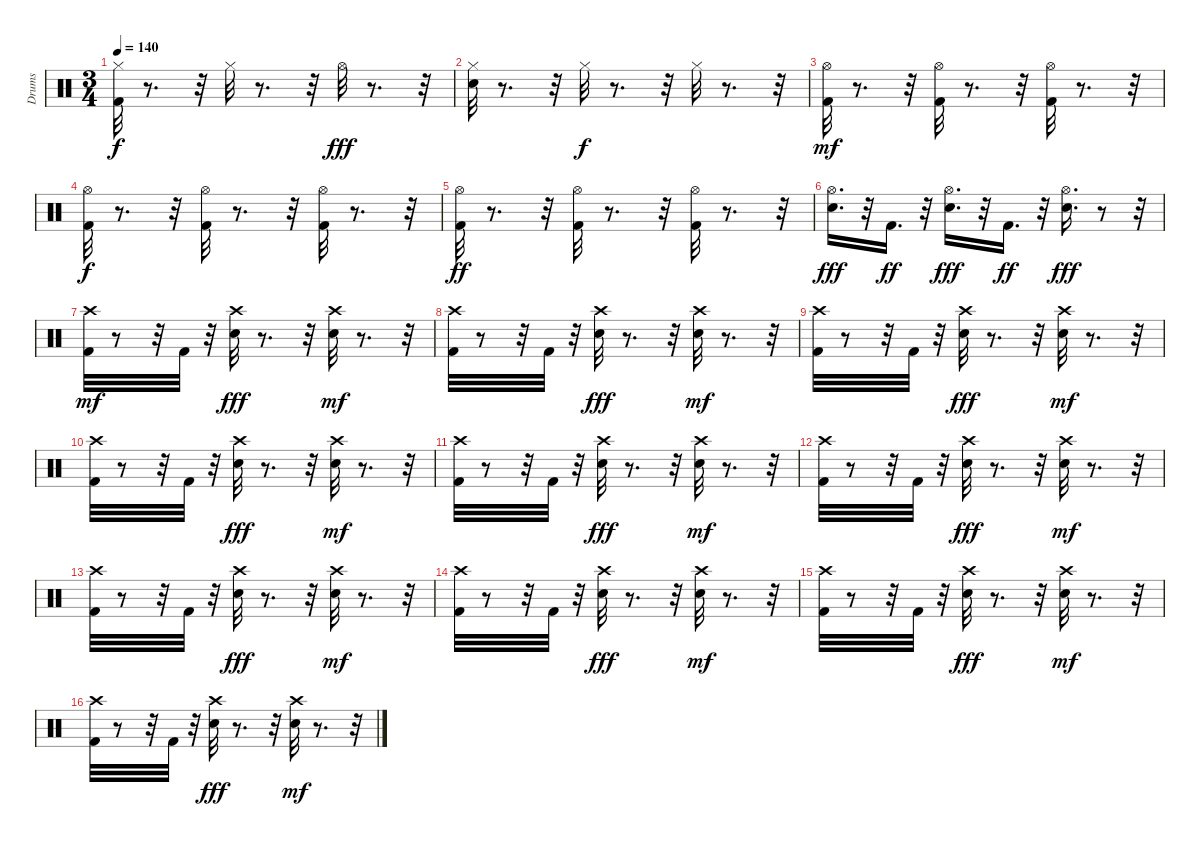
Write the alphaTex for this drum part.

\track ("Drums" "Drums") {instrument percussion}
\staff {score}
\articulation defaults
\ts (3 4)
\tempo 140
\clef neutral
\ks c
("Hi-Hat (closed)" "Kick (hit) 2").32{dy f} r.8{d} r.32 "Hi-Hat (closed)".32 r.8{d} r.32 "Hi-Hat (open)".32{dy fff} r.8{d} r.32 |
("Snare (hit) 2" "Hi-Hat (closed)").32 r.8{d} r.32 "Hi-Hat (closed)".32{dy f} r.8{d} r.32 "Hi-Hat (closed)".32 r.8{d} r.32 |
("Hi-Hat (open)" "Kick (hit) 2").32{dy mf} r.8{d} r.32 ("Kick (hit) 2" "Hi-Hat (open)").32 r.8{d} r.32 ("Kick (hit) 2" "Hi-Hat (open)").32 r.8{d} r.32 |
("Kick (hit) 2" "Hi-Hat (open)").32{dy f} r.8{d} r.32 ("Kick (hit) 2" "Hi-Hat (open)").32 r.8{d} r.32 ("Kick (hit) 2" "Hi-Hat (open)").32 r.8{d} r.32 |
("Kick (hit) 2" "Hi-Hat (open)").32{dy ff} r.8{d} r.32 ("Kick (hit) 2" "Hi-Hat (open)").32 r.8{d} r.32 ("Kick (hit) 2" "Hi-Hat (open)").32 r.8{d} r.32 |
("Hi-Hat (open)" "Snare (hit) 2").16{d dy fff} r.32 "Kick (hit) 2".16{d dy ff} r.32 ("Hi-Hat (open)" "Snare (hit) 2").16{d dy fff} r.32 "Kick (hit) 2".16{d dy ff} r.32 ("Hi-Hat (open)" "Snare (hit) 2").16{d dy fff} r.8 r.32 |
("Kick (hit) 2" "Crash high (hit)").32{dy mf} r.8 r.32 "Kick (hit) 2".32 r.32 ("Snare (hit) 2" "Crash high (hit)").32{dy fff} r.8{d} r.32 ("Snare (hit) 2" "Crash high (hit)").32{dy mf} r.8{d} r.32 |
("Kick (hit) 2" "Crash high (hit)").32 r.8 r.32 "Kick (hit) 2".32 r.32 ("Snare (hit) 2" "Crash high (hit)").32{dy fff} r.8{d} r.32 ("Snare (hit) 2" "Crash high (hit)").32{dy mf} r.8{d} r.32 |
("Kick (hit) 2" "Crash high (hit)").32 r.8 r.32 "Kick (hit) 2".32 r.32 ("Snare (hit) 2" "Crash high (hit)").32{dy fff} r.8{d} r.32 ("Snare (hit) 2" "Crash high (hit)").32{dy mf} r.8{d} r.32 |
("Kick (hit) 2" "Crash high (hit)").32 r.8 r.32 "Kick (hit) 2".32 r.32 ("Snare (hit) 2" "Crash high (hit)").32{dy fff} r.8{d} r.32 ("Snare (hit) 2" "Crash high (hit)").32{dy mf} r.8{d} r.32 |
("Kick (hit) 2" "Crash high (hit)").32 r.8 r.32 "Kick (hit) 2".32 r.32 ("Snare (hit) 2" "Crash high (hit)").32{dy fff} r.8{d} r.32 ("Snare (hit) 2" "Crash high (hit)").32{dy mf} r.8{d} r.32 |
("Kick (hit) 2" "Crash high (hit)").32 r.8 r.32 "Kick (hit) 2".32 r.32 ("Snare (hit) 2" "Crash high (hit)").32{dy fff} r.8{d} r.32 ("Snare (hit) 2" "Crash high (hit)").32{dy mf} r.8{d} r.32 |
("Kick (hit) 2" "Crash high (hit)").32 r.8 r.32 "Kick (hit) 2".32 r.32 ("Snare (hit) 2" "Crash high (hit)").32{dy fff} r.8{d} r.32 ("Snare (hit) 2" "Crash high (hit)").32{dy mf} r.8{d} r.32 |
("Kick (hit) 2" "Crash high (hit)").32 r.8 r.32 "Kick (hit) 2".32 r.32 ("Snare (hit) 2" "Crash high (hit)").32{dy fff} r.8{d} r.32 ("Snare (hit) 2" "Crash high (hit)").32{dy mf} r.8{d} r.32 |
("Kick (hit) 2" "Crash high (hit)").32 r.8 r.32 "Kick (hit) 2".32 r.32 ("Snare (hit) 2" "Crash high (hit)").32{dy fff} r.8{d} r.32 ("Snare (hit) 2" "Crash high (hit)").32{dy mf} r.8{d} r.32 |
("Kick (hit) 2" "Crash high (hit)").32 r.8 r.32 "Kick (hit) 2".32 r.32 ("Snare (hit) 2" "Crash high (hit)").32{dy fff} r.8{d} r.32 ("Snare (hit) 2" "Crash high (hit)").32{dy mf} r.8{d} r.32
